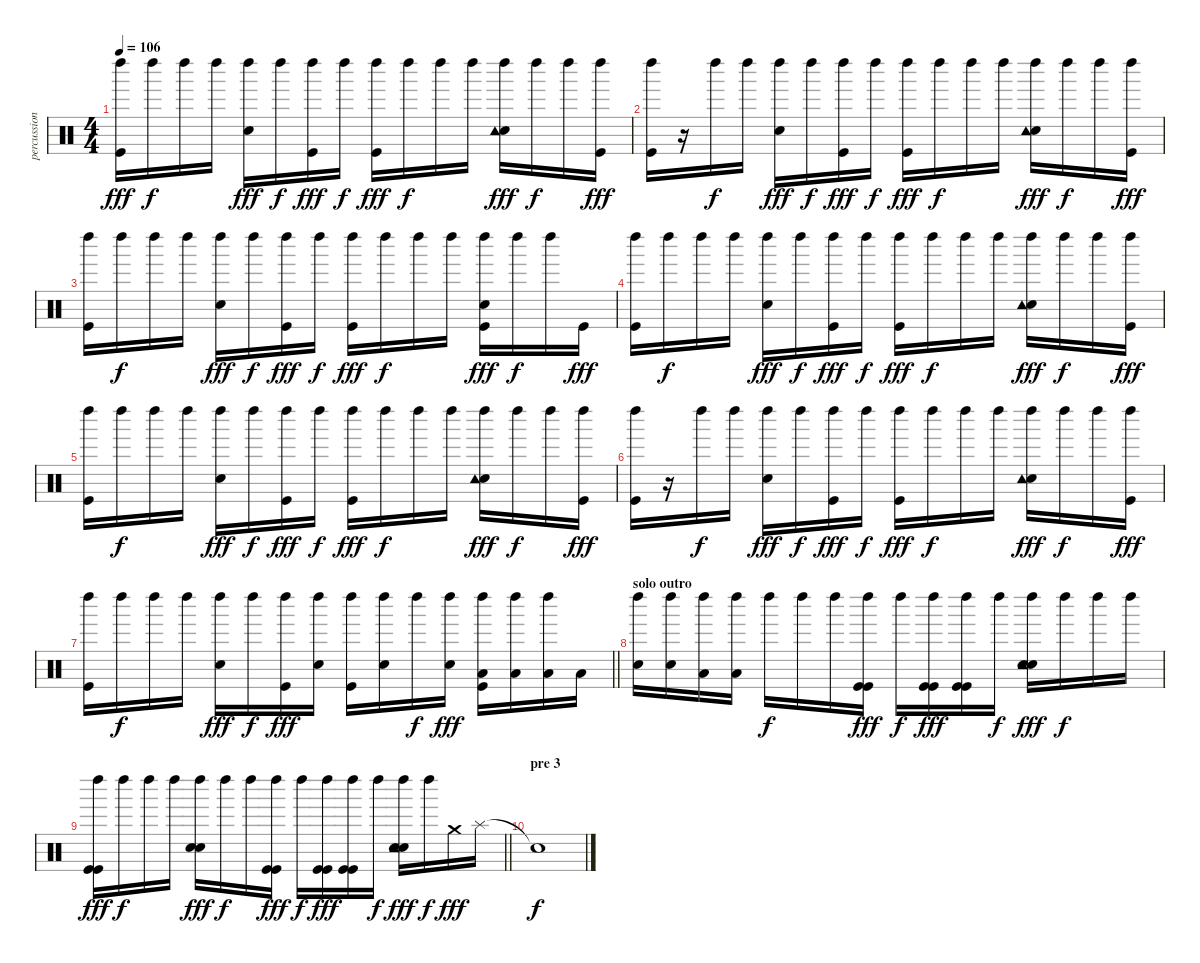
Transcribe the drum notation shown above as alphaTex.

\track ("percussions" "percussion") {instrument percussion}
\staff {score}
\articulation defaults
\ts (4 4)
\tempo 106
\clef neutral
\ks c
("Left Maraca (hit)" "Kick (hit)").16{dy fff} "Left Maraca (hit)".16{dy f} "Left Maraca (hit)".16 "Left Maraca (hit)".16 ("Left Maraca (hit)" "Snare (hit) 2").16{dy fff} "Left Maraca (hit)".16{dy f} ("Left Maraca (hit)" "Kick (hit)").16{dy fff} "Left Maraca (hit)".16{dy f} ("Left Maraca (hit)" "Kick (hit)").16{dy fff} "Left Maraca (hit)".16{dy f} "Left Maraca (hit)".16 "Left Maraca (hit)".16 ("Left Maraca (hit)" "Snare (hit) 2" "Tambourine (hit)").16{dy fff} "Left Maraca (hit)".16{dy f} "Left Maraca (hit)".16 ("Left Maraca (hit)" "Kick (hit)").16{dy fff} |
("Left Maraca (hit)" "Kick (hit)").16 r.16 "Left Maraca (hit)".16{dy f} "Left Maraca (hit)".16 ("Left Maraca (hit)" "Snare (hit) 2").16{dy fff} "Left Maraca (hit)".16{dy f} ("Left Maraca (hit)" "Kick (hit)").16{dy fff} "Left Maraca (hit)".16{dy f} ("Left Maraca (hit)" "Kick (hit)").16{dy fff} "Left Maraca (hit)".16{dy f} "Left Maraca (hit)".16 "Left Maraca (hit)".16 ("Left Maraca (hit)" "Snare (hit) 2" "Tambourine (hit)").16{dy fff} "Left Maraca (hit)".16{dy f} "Left Maraca (hit)".16 ("Left Maraca (hit)" "Kick (hit)").16{dy fff} |
("Left Maraca (hit)" "Kick (hit)").16 "Left Maraca (hit)".16{dy f} "Left Maraca (hit)".16 "Left Maraca (hit)".16 ("Left Maraca (hit)" "Snare (hit) 2").16{dy fff} "Left Maraca (hit)".16{dy f} ("Left Maraca (hit)" "Kick (hit)").16{dy fff} "Left Maraca (hit)".16{dy f} ("Left Maraca (hit)" "Kick (hit)").16{dy fff} "Left Maraca (hit)".16{dy f} "Left Maraca (hit)".16 "Left Maraca (hit)".16 ("Left Maraca (hit)" "Snare (hit) 2" "Kick (hit)").16{dy fff} "Left Maraca (hit)".16{dy f} "Left Maraca (hit)".16 "Kick (hit)".16{dy fff} |
("Left Maraca (hit)" "Kick (hit)").16 "Left Maraca (hit)".16{dy f} "Left Maraca (hit)".16 "Left Maraca (hit)".16 ("Left Maraca (hit)" "Snare (hit) 2").16{dy fff} "Left Maraca (hit)".16{dy f} ("Left Maraca (hit)" "Kick (hit)").16{dy fff} "Left Maraca (hit)".16{dy f} ("Left Maraca (hit)" "Kick (hit)").16{dy fff} "Left Maraca (hit)".16{dy f} "Left Maraca (hit)".16 "Left Maraca (hit)".16 ("Left Maraca (hit)" "Snare (hit) 2" "Tambourine (hit)").16{dy fff} "Left Maraca (hit)".16{dy f} "Left Maraca (hit)".16 ("Left Maraca (hit)" "Kick (hit)").16{dy fff} |
("Left Maraca (hit)" "Kick (hit)").16 "Left Maraca (hit)".16{dy f} "Left Maraca (hit)".16 "Left Maraca (hit)".16 ("Left Maraca (hit)" "Snare (hit) 2").16{dy fff} "Left Maraca (hit)".16{dy f} ("Left Maraca (hit)" "Kick (hit)").16{dy fff} "Left Maraca (hit)".16{dy f} ("Left Maraca (hit)" "Kick (hit)").16{dy fff} "Left Maraca (hit)".16{dy f} "Left Maraca (hit)".16 "Left Maraca (hit)".16 ("Left Maraca (hit)" "Snare (hit) 2" "Tambourine (hit)").16{dy fff} "Left Maraca (hit)".16{dy f} "Left Maraca (hit)".16 ("Left Maraca (hit)" "Kick (hit)").16{dy fff} |
("Left Maraca (hit)" "Kick (hit)").16 r.16 "Left Maraca (hit)".16{dy f} "Left Maraca (hit)".16 ("Left Maraca (hit)" "Snare (hit) 2").16{dy fff} "Left Maraca (hit)".16{dy f} ("Left Maraca (hit)" "Kick (hit)").16{dy fff} "Left Maraca (hit)".16{dy f} ("Left Maraca (hit)" "Kick (hit)").16{dy fff} "Left Maraca (hit)".16{dy f} "Left Maraca (hit)".16 "Left Maraca (hit)".16 ("Left Maraca (hit)" "Snare (hit) 2" "Tambourine (hit)").16{dy fff} "Left Maraca (hit)".16{dy f} "Left Maraca (hit)".16 ("Left Maraca (hit)" "Kick (hit)").16{dy fff} |
\barLineRight lightlight
("Left Maraca (hit)" "Kick (hit)").16 "Left Maraca (hit)".16{dy f} "Left Maraca (hit)".16 "Left Maraca (hit)".16 ("Left Maraca (hit)" "Snare (hit) 2").16{dy fff} "Left Maraca (hit)".16{dy f} ("Left Maraca (hit)" "Kick (hit)").16{dy fff} ("Left Maraca (hit)" "Snare (hit) 2").16 ("Left Maraca (hit)" "Kick (hit)").16 ("Left Maraca (hit)" "Snare (hit) 2").16 "Left Maraca (hit)".16{dy f} ("Left Maraca (hit)" "Snare (hit) 2").16{dy fff} ("Left Maraca (hit)" "Low Tom (hit)" "Kick (hit)").16 ("Left Maraca (hit)" "Low Tom (hit)").16 ("Left Maraca (hit)" "Low Floor Tom (hit)").16 "Low Floor Tom (hit)".16 |
\section ("" "solo outro")
("Left Maraca (hit)" "Snare (hit) 2").16 ("Left Maraca (hit)" "Snare (hit) 2").16 ("Left Maraca (hit)" "Low Tom (hit)").16 ("Left Maraca (hit)" "Low Tom (hit)").16 "Left Maraca (hit)".16{dy f} "Left Maraca (hit)".16 "Left Maraca (hit)".16 ("Left Maraca (hit)" "Kick (hit)" "Kick (hit)").16{dy fff} "Left Maraca (hit)".16{dy f} ("Left Maraca (hit)" "Kick (hit)" "Kick (hit)").16{dy fff} ("Left Maraca (hit)" "Kick (hit)" "Kick (hit)").16 "Left Maraca (hit)".16{dy f} ("Left Maraca (hit)" "Snare (hit) 2" "Snare (hit) 2" "Tambourine (hit)").16{dy fff} "Left Maraca (hit)".16{dy f} "Left Maraca (hit)".16 "Left Maraca (hit)".16 |
\barLineRight lightlight
("Left Maraca (hit)" "Kick (hit)" "Kick (hit)").16{dy fff} "Left Maraca (hit)".16{dy f} "Left Maraca (hit)".16 "Left Maraca (hit)".16 ("Left Maraca (hit)" "Snare (hit) 2" "Snare (hit) 2").16{dy fff} "Left Maraca (hit)".16{dy f} "Left Maraca (hit)".16 ("Left Maraca (hit)" "Kick (hit)" "Kick (hit)").16{dy fff} "Left Maraca (hit)".16{dy f} ("Left Maraca (hit)" "Kick (hit)" "Kick (hit)").16{dy fff} ("Left Maraca (hit)" "Kick (hit)" "Kick (hit)").16 "Left Maraca (hit)".16{dy f} ("Left Maraca (hit)" "Snare (hit) 2" "Snare (hit) 2" "Tambourine (hit)").16{dy fff} "Left Maraca (hit)".16{dy f} "Crash medium (hit)".16{dy fff} "Splash (hit)".16 |
\section ("" "pre 3")
"Snare (hit)"{t}.1{dy f}
